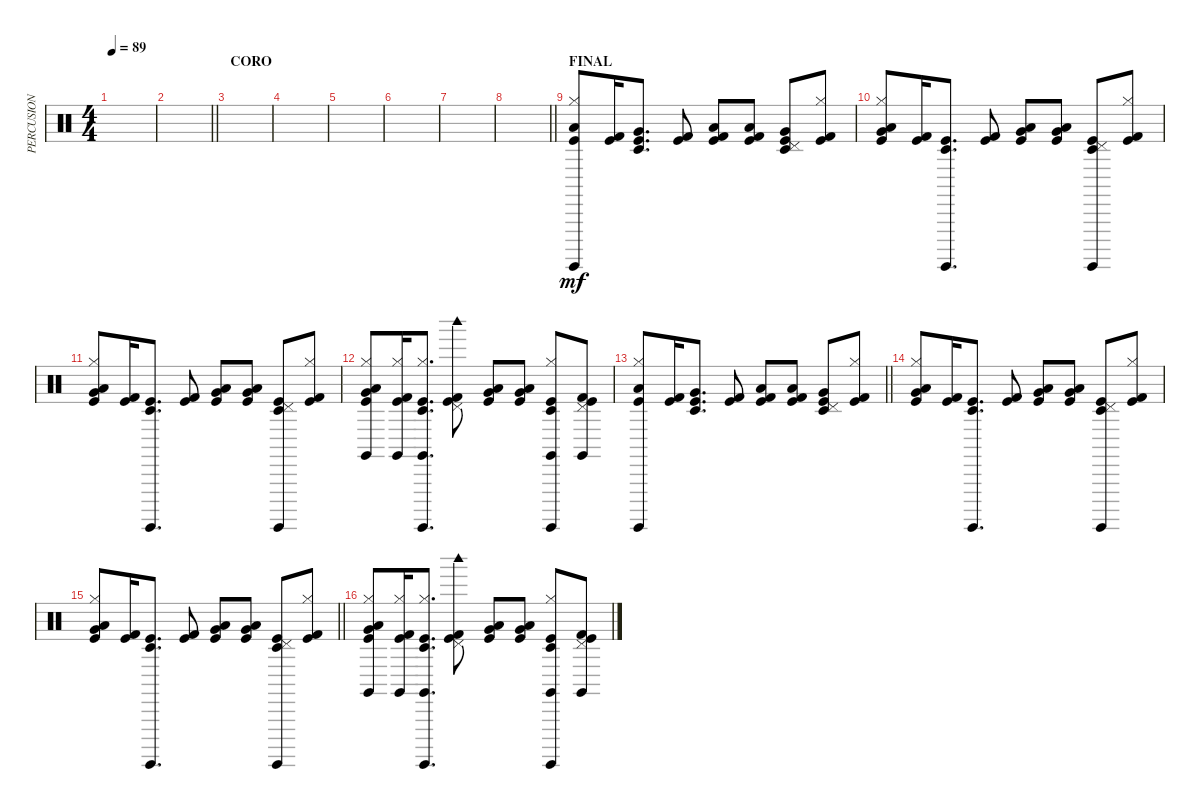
\track ("PERCUSION" "PERCUSION") {instrument percussion}
\staff {score}
\articulation defaults
\ts (4 4)
\tempo 89
\clef neutral
\ks c
|
\barLineRight lightlight
|
\section ("" "CORO")
|
|
|
|
|
\barLineRight lightlight
|
\section ("" "FINAL")
("Kick (hit)" "Hi-Hat (closed)" "Surdo (hit)" "Low Floor Tom (hit)").8{dy mf volume 5} ("Kick (hit)" "Kick (hit) 2").16 ("Kick (hit)" "Very Low Tom (hit)" "Timbale low (hit)").8{d} ("Kick (hit)" "Kick (hit) 2").8 ("Kick (hit)" "Kick (hit) 2" "Low Floor Tom (hit)").8 ("Kick (hit)" "Kick (hit) 2" "Low Floor Tom (hit)").8 ("Kick (hit)" "Pedal Hi-Hat (hit)" "Very Low Tom (hit)" "Timbale low (hit)").8 ("Kick (hit)" "Hi-Hat (closed)" "Kick (hit) 2").8 |
("Kick (hit)" "Hi-Hat (closed)" "Very Low Tom (hit)" "Low Floor Tom (hit)").8 ("Kick (hit)" "Kick (hit) 2").16 ("Kick (hit)" "Surdo (hit)" "Timbale low (hit)").8{d} ("Kick (hit)" "Kick (hit) 2").8 ("Kick (hit)" "Very Low Tom (hit)" "Low Floor Tom (hit)").8 ("Kick (hit)" "Very Low Tom (hit)" "Low Floor Tom (hit)").8 ("Kick (hit)" "Pedal Hi-Hat (hit)" "Surdo (hit)" "Timbale low (hit)").8 ("Kick (hit)" "Hi-Hat (closed)" "Kick (hit) 2").8 |
("Kick (hit)" "Hi-Hat (closed)" "Very Low Tom (hit)" "Low Floor Tom (hit)").8 ("Kick (hit)" "Kick (hit) 2").16 ("Kick (hit)" "Surdo (hit)" "Timbale low (hit)").8{d} ("Kick (hit)" "Kick (hit) 2").8 ("Kick (hit)" "Very Low Tom (hit)" "Low Floor Tom (hit)").8 ("Kick (hit)" "Very Low Tom (hit)" "Low Floor Tom (hit)").8 ("Kick (hit)" "Pedal Hi-Hat (hit)" "Surdo (hit)" "Timbale low (hit)").8 ("Kick (hit)" "Hi-Hat (closed)" "Kick (hit) 2").8 |
("Kick (hit)" "Claves (hit)" "Hi-Hat (closed)" "Very Low Tom (hit)" "Low Floor Tom (hit)").8 ("Kick (hit)" "Claves (hit)" "Hi-Hat (closed)" "Kick (hit) 2").16 ("Kick (hit)" "Claves (hit)" "Hi-Hat (closed)" "Surdo (hit)" "Timbale low (hit)").8{d} ("Kick (hit)" "Woodblock high (hit)" "Pedal Hi-Hat (hit)" "Kick (hit) 2").8 ("Kick (hit)" "Very Low Tom (hit)" "Low Floor Tom (hit)").8 ("Kick (hit)" "Very Low Tom (hit)" "Low Floor Tom (hit)").8 ("Kick (hit)" "Claves (hit)" "Hi-Hat (closed)" "Surdo (hit)" "Timbale low (hit)").8 ("Kick (hit)" "Claves (hit)" "Pedal Hi-Hat (hit)" "Kick (hit) 2").8 |
\barLineRight lightlight
("Kick (hit)" "Hi-Hat (closed)" "Surdo (hit)" "Low Floor Tom (hit)").8 ("Kick (hit)" "Kick (hit) 2").16 ("Kick (hit)" "Very Low Tom (hit)" "Timbale low (hit)").8{d} ("Kick (hit)" "Kick (hit) 2").8 ("Kick (hit)" "Kick (hit) 2" "Low Floor Tom (hit)").8 ("Kick (hit)" "Kick (hit) 2" "Low Floor Tom (hit)").8 ("Kick (hit)" "Pedal Hi-Hat (hit)" "Very Low Tom (hit)" "Timbale low (hit)").8 ("Kick (hit)" "Hi-Hat (closed)" "Kick (hit) 2").8 |
("Kick (hit)" "Hi-Hat (closed)" "Very Low Tom (hit)" "Low Floor Tom (hit)").8 ("Kick (hit)" "Kick (hit) 2").16 ("Kick (hit)" "Surdo (hit)" "Timbale low (hit)").8{d} ("Kick (hit)" "Kick (hit) 2").8 ("Kick (hit)" "Very Low Tom (hit)" "Low Floor Tom (hit)").8 ("Kick (hit)" "Very Low Tom (hit)" "Low Floor Tom (hit)").8 ("Kick (hit)" "Pedal Hi-Hat (hit)" "Surdo (hit)" "Timbale low (hit)").8 ("Kick (hit)" "Hi-Hat (closed)" "Kick (hit) 2").8 |
\barLineRight lightlight
("Kick (hit)" "Hi-Hat (closed)" "Very Low Tom (hit)" "Low Floor Tom (hit)").8 ("Kick (hit)" "Kick (hit) 2").16 ("Kick (hit)" "Surdo (hit)" "Timbale low (hit)").8{d} ("Kick (hit)" "Kick (hit) 2").8 ("Kick (hit)" "Very Low Tom (hit)" "Low Floor Tom (hit)").8 ("Kick (hit)" "Very Low Tom (hit)" "Low Floor Tom (hit)").8 ("Kick (hit)" "Pedal Hi-Hat (hit)" "Surdo (hit)" "Timbale low (hit)").8 ("Kick (hit)" "Hi-Hat (closed)" "Kick (hit) 2").8 |
("Kick (hit)" "Claves (hit)" "Hi-Hat (closed)" "Very Low Tom (hit)" "Low Floor Tom (hit)").8 ("Kick (hit)" "Claves (hit)" "Hi-Hat (closed)" "Kick (hit) 2").16 ("Kick (hit)" "Claves (hit)" "Hi-Hat (closed)" "Surdo (hit)" "Timbale low (hit)").8{d} ("Kick (hit)" "Woodblock high (hit)" "Pedal Hi-Hat (hit)" "Kick (hit) 2").8 ("Kick (hit)" "Very Low Tom (hit)" "Low Floor Tom (hit)").8 ("Kick (hit)" "Very Low Tom (hit)" "Low Floor Tom (hit)").8 ("Kick (hit)" "Claves (hit)" "Hi-Hat (closed)" "Surdo (hit)" "Timbale low (hit)").8 ("Kick (hit)" "Claves (hit)" "Pedal Hi-Hat (hit)" "Kick (hit) 2").8
